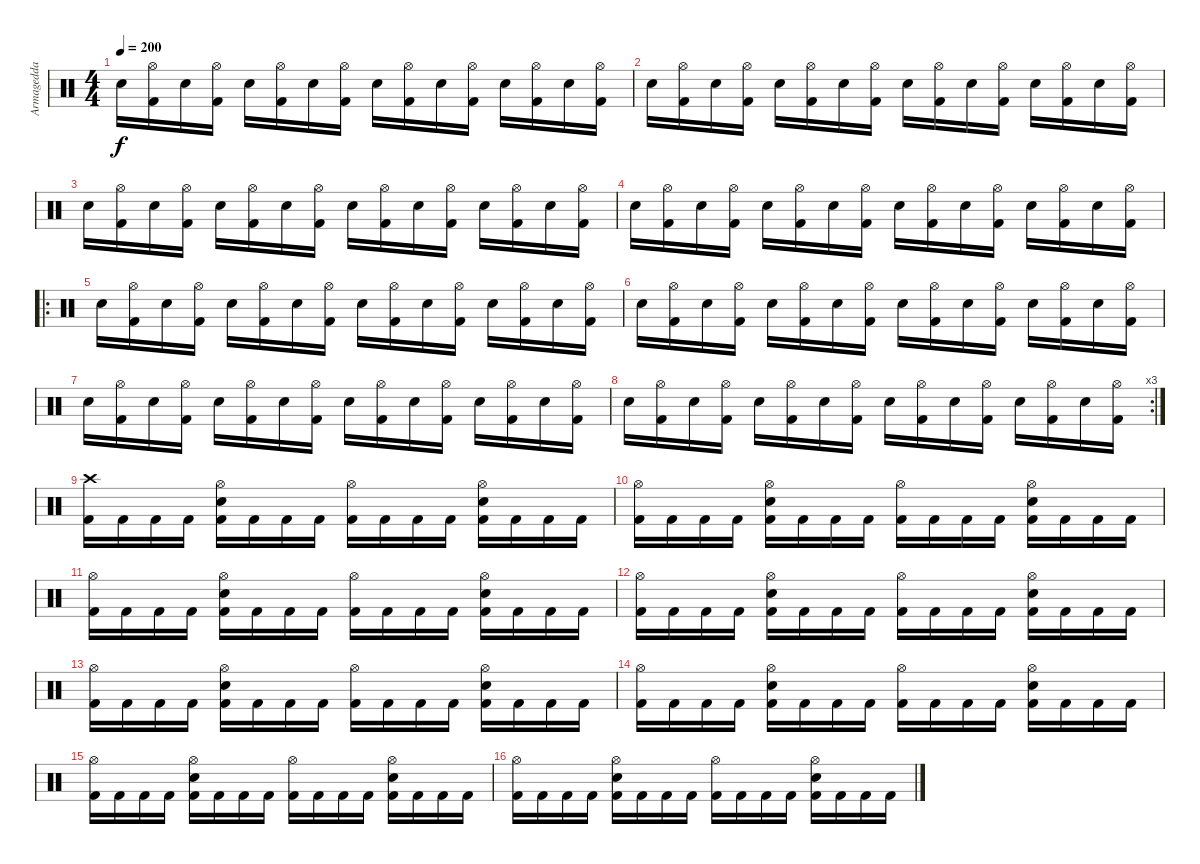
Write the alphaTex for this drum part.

\track ("Armagedda" "Armagedda") {instrument percussion}
\staff {score}
\articulation defaults
\ts (4 4)
\tempo 200
\clef neutral
\ks c "Snare (hit) 2".16{dy f volume 6}
("Hi-Hat (open)" "Kick (hit) 2").16{volume 14} "Snare (hit) 2".16 ("Hi-Hat (open)" "Kick (hit) 2").16 "Snare (hit) 2".16 ("Hi-Hat (open)" "Kick (hit) 2").16 "Snare (hit) 2".16 ("Hi-Hat (open)" "Kick (hit) 2").16 "Snare (hit) 2".16 ("Hi-Hat (open)" "Kick (hit) 2").16 "Snare (hit) 2".16 ("Hi-Hat (open)" "Kick (hit) 2").16 "Snare (hit) 2".16 ("Hi-Hat (open)" "Kick (hit) 2").16 "Snare (hit) 2".16 ("Hi-Hat (open)" "Kick (hit) 2").16 |
"Snare (hit) 2".16 ("Hi-Hat (open)" "Kick (hit) 2").16 "Snare (hit) 2".16 ("Hi-Hat (open)" "Kick (hit) 2").16 "Snare (hit) 2".16 ("Hi-Hat (open)" "Kick (hit) 2").16 "Snare (hit) 2".16 ("Hi-Hat (open)" "Kick (hit) 2").16 "Snare (hit) 2".16 ("Hi-Hat (open)" "Kick (hit) 2").16 "Snare (hit) 2".16 ("Hi-Hat (open)" "Kick (hit) 2").16 "Snare (hit) 2".16 ("Hi-Hat (open)" "Kick (hit) 2").16 "Snare (hit) 2".16 ("Hi-Hat (open)" "Kick (hit) 2").16 |
"Snare (hit) 2".16 ("Hi-Hat (open)" "Kick (hit) 2").16 "Snare (hit) 2".16 ("Hi-Hat (open)" "Kick (hit) 2").16 "Snare (hit) 2".16 ("Hi-Hat (open)" "Kick (hit) 2").16 "Snare (hit) 2".16 ("Hi-Hat (open)" "Kick (hit) 2").16 "Snare (hit) 2".16 ("Hi-Hat (open)" "Kick (hit) 2").16 "Snare (hit) 2".16 ("Hi-Hat (open)" "Kick (hit) 2").16 "Snare (hit) 2".16 ("Hi-Hat (open)" "Kick (hit) 2").16 "Snare (hit) 2".16 ("Hi-Hat (open)" "Kick (hit) 2").16 |
"Snare (hit) 2".16 ("Hi-Hat (open)" "Kick (hit) 2").16 "Snare (hit) 2".16 ("Hi-Hat (open)" "Kick (hit) 2").16 "Snare (hit) 2".16 ("Hi-Hat (open)" "Kick (hit) 2").16 "Snare (hit) 2".16 ("Hi-Hat (open)" "Kick (hit) 2").16 "Snare (hit) 2".16 ("Hi-Hat (open)" "Kick (hit) 2").16 "Snare (hit) 2".16 ("Hi-Hat (open)" "Kick (hit) 2").16 "Snare (hit) 2".16 ("Hi-Hat (open)" "Kick (hit) 2").16 "Snare (hit) 2".16 ("Hi-Hat (open)" "Kick (hit) 2").16 |
\ro "Snare (hit) 2".16
("Hi-Hat (open)" "Kick (hit) 2").16 "Snare (hit) 2".16 ("Hi-Hat (open)" "Kick (hit) 2").16 "Snare (hit) 2".16 ("Hi-Hat (open)" "Kick (hit) 2").16 "Snare (hit) 2".16 ("Hi-Hat (open)" "Kick (hit) 2").16 "Snare (hit) 2".16 ("Hi-Hat (open)" "Kick (hit) 2").16 "Snare (hit) 2".16 ("Hi-Hat (open)" "Kick (hit) 2").16 "Snare (hit) 2".16 ("Hi-Hat (open)" "Kick (hit) 2").16 "Snare (hit) 2".16 ("Hi-Hat (open)" "Kick (hit) 2").16 |
"Snare (hit) 2".16 ("Hi-Hat (open)" "Kick (hit) 2").16 "Snare (hit) 2".16 ("Hi-Hat (open)" "Kick (hit) 2").16 "Snare (hit) 2".16 ("Hi-Hat (open)" "Kick (hit) 2").16 "Snare (hit) 2".16 ("Hi-Hat (open)" "Kick (hit) 2").16 "Snare (hit) 2".16 ("Hi-Hat (open)" "Kick (hit) 2").16 "Snare (hit) 2".16 ("Hi-Hat (open)" "Kick (hit) 2").16 "Snare (hit) 2".16 ("Hi-Hat (open)" "Kick (hit) 2").16 "Snare (hit) 2".16 ("Hi-Hat (open)" "Kick (hit) 2").16 |
"Snare (hit) 2".16 ("Hi-Hat (open)" "Kick (hit) 2").16 "Snare (hit) 2".16 ("Hi-Hat (open)" "Kick (hit) 2").16 "Snare (hit) 2".16 ("Hi-Hat (open)" "Kick (hit) 2").16 "Snare (hit) 2".16 ("Hi-Hat (open)" "Kick (hit) 2").16 "Snare (hit) 2".16 ("Hi-Hat (open)" "Kick (hit) 2").16 "Snare (hit) 2".16 ("Hi-Hat (open)" "Kick (hit) 2").16 "Snare (hit) 2".16 ("Hi-Hat (open)" "Kick (hit) 2").16 "Snare (hit) 2".16 ("Hi-Hat (open)" "Kick (hit) 2").16 |
\rc 3 "Snare (hit) 2".16
("Hi-Hat (open)" "Kick (hit) 2").16 "Snare (hit) 2".16 ("Hi-Hat (open)" "Kick (hit) 2").16 "Snare (hit) 2".16 ("Hi-Hat (open)" "Kick (hit) 2").16 "Snare (hit) 2".16 ("Hi-Hat (open)" "Kick (hit) 2").16 "Snare (hit) 2".16 ("Hi-Hat (open)" "Kick (hit) 2").16 "Snare (hit) 2".16 ("Hi-Hat (open)" "Kick (hit) 2").16 "Snare (hit) 2".16 ("Hi-Hat (open)" "Kick (hit) 2").16 "Snare (hit) 2".16 ("Hi-Hat (open)" "Kick (hit) 2").16 |
("Crash high (hit)" "Kick (hit) 2").16 "Kick (hit) 2".16 "Kick (hit) 2".16 "Kick (hit) 2".16 ("Hi-Hat (open)" "Electric Snare (hit)" "Kick (hit) 2").16 "Kick (hit) 2".16 "Kick (hit) 2".16 "Kick (hit) 2".16 ("Hi-Hat (open)" "Kick (hit) 2").16 "Kick (hit) 2".16 "Kick (hit) 2".16 "Kick (hit) 2".16 ("Hi-Hat (open)" "Electric Snare (hit)" "Kick (hit) 2").16 "Kick (hit) 2".16 "Kick (hit) 2".16 "Kick (hit) 2".16 |
("Hi-Hat (open)" "Kick (hit) 2").16 "Kick (hit) 2".16 "Kick (hit) 2".16 "Kick (hit) 2".16 ("Hi-Hat (open)" "Electric Snare (hit)" "Kick (hit) 2").16 "Kick (hit) 2".16 "Kick (hit) 2".16 "Kick (hit) 2".16 ("Hi-Hat (open)" "Kick (hit) 2").16 "Kick (hit) 2".16 "Kick (hit) 2".16 "Kick (hit) 2".16 ("Hi-Hat (open)" "Electric Snare (hit)" "Kick (hit) 2").16 "Kick (hit) 2".16 "Kick (hit) 2".16 "Kick (hit) 2".16 |
("Hi-Hat (open)" "Kick (hit) 2").16 "Kick (hit) 2".16 "Kick (hit) 2".16 "Kick (hit) 2".16 ("Hi-Hat (open)" "Electric Snare (hit)" "Kick (hit) 2").16 "Kick (hit) 2".16 "Kick (hit) 2".16 "Kick (hit) 2".16 ("Hi-Hat (open)" "Kick (hit) 2").16 "Kick (hit) 2".16 "Kick (hit) 2".16 "Kick (hit) 2".16 ("Hi-Hat (open)" "Electric Snare (hit)" "Kick (hit) 2").16 "Kick (hit) 2".16 "Kick (hit) 2".16 "Kick (hit) 2".16 |
("Hi-Hat (open)" "Kick (hit) 2").16 "Kick (hit) 2".16 "Kick (hit) 2".16 "Kick (hit) 2".16 ("Hi-Hat (open)" "Electric Snare (hit)" "Kick (hit) 2").16 "Kick (hit) 2".16 "Kick (hit) 2".16 "Kick (hit) 2".16 ("Hi-Hat (open)" "Kick (hit) 2").16 "Kick (hit) 2".16 "Kick (hit) 2".16 "Kick (hit) 2".16 ("Hi-Hat (open)" "Electric Snare (hit)" "Kick (hit) 2").16 "Kick (hit) 2".16 "Kick (hit) 2".16 "Kick (hit) 2".16 |
("Hi-Hat (open)" "Kick (hit) 2").16 "Kick (hit) 2".16 "Kick (hit) 2".16 "Kick (hit) 2".16 ("Hi-Hat (open)" "Electric Snare (hit)" "Kick (hit) 2").16 "Kick (hit) 2".16 "Kick (hit) 2".16 "Kick (hit) 2".16 ("Hi-Hat (open)" "Kick (hit) 2").16 "Kick (hit) 2".16 "Kick (hit) 2".16 "Kick (hit) 2".16 ("Hi-Hat (open)" "Electric Snare (hit)" "Kick (hit) 2").16 "Kick (hit) 2".16 "Kick (hit) 2".16 "Kick (hit) 2".16 |
("Hi-Hat (open)" "Kick (hit) 2").16 "Kick (hit) 2".16 "Kick (hit) 2".16 "Kick (hit) 2".16 ("Hi-Hat (open)" "Electric Snare (hit)" "Kick (hit) 2").16 "Kick (hit) 2".16 "Kick (hit) 2".16 "Kick (hit) 2".16 ("Hi-Hat (open)" "Kick (hit) 2").16 "Kick (hit) 2".16 "Kick (hit) 2".16 "Kick (hit) 2".16 ("Hi-Hat (open)" "Electric Snare (hit)" "Kick (hit) 2").16 "Kick (hit) 2".16 "Kick (hit) 2".16 "Kick (hit) 2".16 |
("Hi-Hat (open)" "Kick (hit) 2").16 "Kick (hit) 2".16 "Kick (hit) 2".16 "Kick (hit) 2".16 ("Hi-Hat (open)" "Electric Snare (hit)" "Kick (hit) 2").16 "Kick (hit) 2".16 "Kick (hit) 2".16 "Kick (hit) 2".16 ("Hi-Hat (open)" "Kick (hit) 2").16 "Kick (hit) 2".16 "Kick (hit) 2".16 "Kick (hit) 2".16 ("Hi-Hat (open)" "Electric Snare (hit)" "Kick (hit) 2").16 "Kick (hit) 2".16 "Kick (hit) 2".16 "Kick (hit) 2".16 |
("Hi-Hat (open)" "Kick (hit) 2").16 "Kick (hit) 2".16 "Kick (hit) 2".16 "Kick (hit) 2".16 ("Hi-Hat (open)" "Electric Snare (hit)" "Kick (hit) 2").16 "Kick (hit) 2".16 "Kick (hit) 2".16 "Kick (hit) 2".16 ("Hi-Hat (open)" "Kick (hit) 2").16 "Kick (hit) 2".16 "Kick (hit) 2".16 "Kick (hit) 2".16 ("Hi-Hat (open)" "Electric Snare (hit)" "Kick (hit) 2").16 "Kick (hit) 2".16 "Kick (hit) 2".16 "Kick (hit) 2".16
